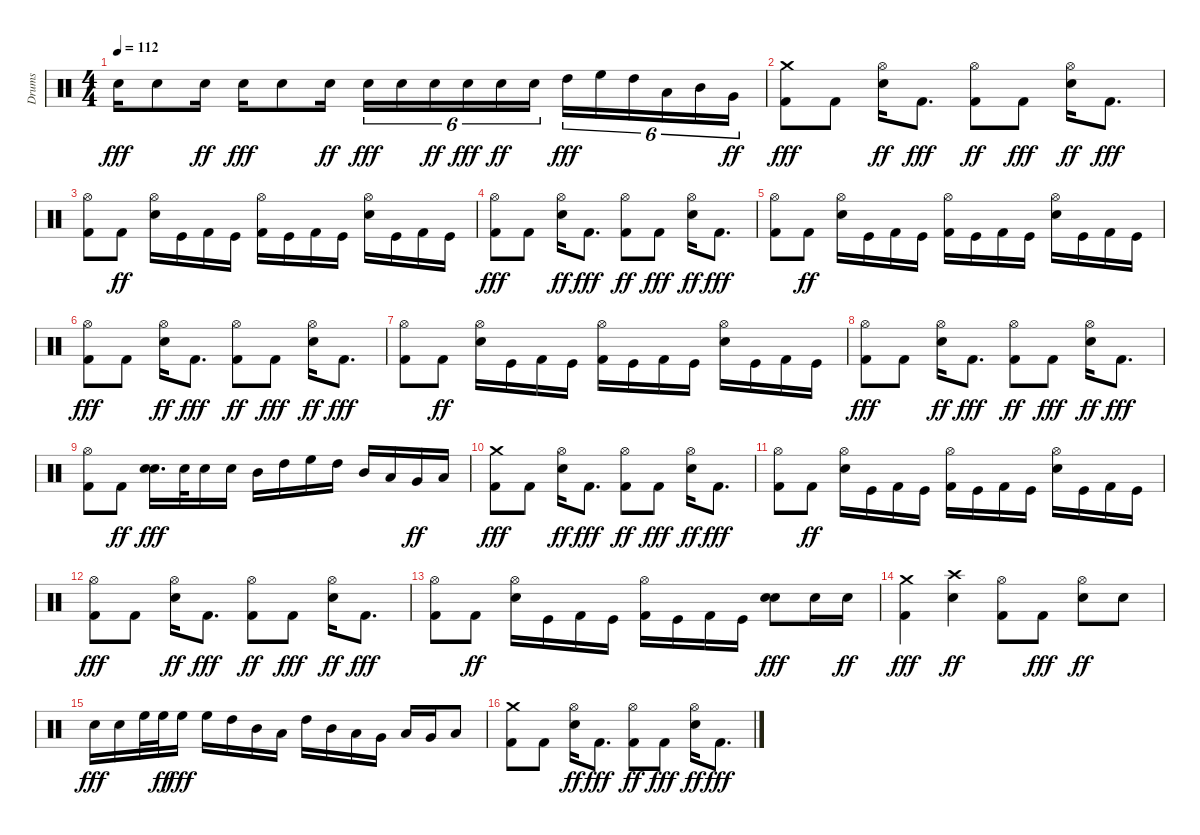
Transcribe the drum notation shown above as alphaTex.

\track ("Drums" "Drums") {instrument percussion}
\staff {score}
\articulation defaults
\ts (4 4)
\tempo 112
\clef neutral
\ks c "Snare (hit) 2".16{dy fff} "Snare (hit) 2".8 "Snare (hit) 2".16{dy ff} "Snare (hit) 2".16{dy fff} "Snare (hit) 2".8 "Snare (hit) 2".16{dy ff} "Electric Snare (hit)".16{tu (6 4) dy fff} "Snare (hit) 2".16{tu (6 4)} "Electric Snare (hit)".16{tu (6 4) dy ff} "Snare (hit) 2".16{tu (6 4) dy fff} "Electric Snare (hit)".16{tu (6 4) dy ff} "Snare (hit) 2".16{tu (6 4)} "High Tom (hit)".16{tu (6 4) dy fff} "High Floor Tom (hit)".16{tu (6 4)} "High Tom (hit)".16{tu (6 4)} "Low Tom (hit)".16{tu (6 4)} "Mid Tom (hit)".16{tu (6 4)} "Very Low Tom (hit)".16{tu (6 4) dy ff}
|
("Kick (hit) 2" "Crash medium (hit)").8{dy fff} "Kick (hit) 2".8 ("Snare (hit) 2" "Hi-Hat (open)").16{dy ff} "Kick (hit) 2".8{d dy fff} ("Kick (hit) 2" "Hi-Hat (open)").8{dy ff} "Kick (hit) 2".8{dy fff} ("Snare (hit) 2" "Hi-Hat (open)").16{dy ff} "Kick (hit) 2".8{d dy fff} |
("Kick (hit) 2" "Hi-Hat (open)").8 "Kick (hit) 2".8{dy ff} ("Snare (hit) 2" "Hi-Hat (open)").16 "Kick (hit)".16 "Kick (hit) 2".16 "Kick (hit)".16 ("Kick (hit) 2" "Hi-Hat (open)").16 "Kick (hit)".16 "Kick (hit) 2".16 "Kick (hit)".16 ("Snare (hit) 2" "Hi-Hat (open)").16 "Kick (hit)".16 "Kick (hit) 2".16 "Kick (hit)".16 |
("Kick (hit) 2" "Hi-Hat (open)").8{dy fff} "Kick (hit) 2".8 ("Snare (hit) 2" "Hi-Hat (open)").16{dy ff} "Kick (hit) 2".8{d dy fff} ("Kick (hit) 2" "Hi-Hat (open)").8{dy ff} "Kick (hit) 2".8{dy fff} ("Snare (hit) 2" "Hi-Hat (open)").16{dy ff} "Kick (hit) 2".8{d dy fff} |
("Kick (hit) 2" "Hi-Hat (open)").8 "Kick (hit) 2".8{dy ff} ("Snare (hit) 2" "Hi-Hat (open)").16 "Kick (hit)".16 "Kick (hit) 2".16 "Kick (hit)".16 ("Kick (hit) 2" "Hi-Hat (open)").16 "Kick (hit)".16 "Kick (hit) 2".16 "Kick (hit)".16 ("Snare (hit) 2" "Hi-Hat (open)").16 "Kick (hit)".16 "Kick (hit) 2".16 "Kick (hit)".16 |
("Kick (hit) 2" "Hi-Hat (open)").8{dy fff} "Kick (hit) 2".8 ("Snare (hit) 2" "Hi-Hat (open)").16{dy ff} "Kick (hit) 2".8{d dy fff} ("Kick (hit) 2" "Hi-Hat (open)").8{dy ff} "Kick (hit) 2".8{dy fff} ("Snare (hit) 2" "Hi-Hat (open)").16{dy ff} "Kick (hit) 2".8{d dy fff} |
("Kick (hit) 2" "Hi-Hat (open)").8 "Kick (hit) 2".8{dy ff} ("Snare (hit) 2" "Hi-Hat (open)").16 "Kick (hit)".16 "Kick (hit) 2".16 "Kick (hit)".16 ("Kick (hit) 2" "Hi-Hat (open)").16 "Kick (hit)".16 "Kick (hit) 2".16 "Kick (hit)".16 ("Snare (hit) 2" "Hi-Hat (open)").16 "Kick (hit)".16 "Kick (hit) 2".16 "Kick (hit)".16 |
("Kick (hit) 2" "Hi-Hat (open)").8{dy fff} "Kick (hit) 2".8 ("Snare (hit) 2" "Hi-Hat (open)").16{dy ff} "Kick (hit) 2".8{d dy fff} ("Kick (hit) 2" "Hi-Hat (open)").8{dy ff} "Kick (hit) 2".8{dy fff} ("Snare (hit) 2" "Hi-Hat (open)").16{dy ff} "Kick (hit) 2".8{d dy fff} |
("Kick (hit) 2" "Hi-Hat (open)").8 "Kick (hit) 2".8{dy ff} ("Snare (hit) 2" "Electric Snare (hit)").16{d dy fff} "Electric Snare (hit)".32 "Electric Snare (hit)".16 "Electric Snare (hit)".16 "Mid Tom (hit)".16 "High Tom (hit)".16 "High Floor Tom (hit)".16 "High Tom (hit)".16 "Mid Tom (hit)".16 "Low Tom (hit)".16 "Very Low Tom (hit)".16{dy ff} "Low Floor Tom (hit)".16 |
("Kick (hit) 2" "Crash medium (hit)").8{dy fff} "Kick (hit) 2".8 ("Snare (hit) 2" "Hi-Hat (open)").16{dy ff} "Kick (hit) 2".8{d dy fff} ("Kick (hit) 2" "Hi-Hat (open)").8{dy ff} "Kick (hit) 2".8{dy fff} ("Snare (hit) 2" "Hi-Hat (open)").16{dy ff} "Kick (hit) 2".8{d dy fff} |
("Kick (hit) 2" "Hi-Hat (open)").8 "Kick (hit) 2".8{dy ff} ("Snare (hit) 2" "Hi-Hat (open)").16 "Kick (hit)".16 "Kick (hit) 2".16 "Kick (hit)".16 ("Kick (hit) 2" "Hi-Hat (open)").16 "Kick (hit)".16 "Kick (hit) 2".16 "Kick (hit)".16 ("Snare (hit) 2" "Hi-Hat (open)").16 "Kick (hit)".16 "Kick (hit) 2".16 "Kick (hit)".16 |
("Kick (hit) 2" "Hi-Hat (open)").8{dy fff} "Kick (hit) 2".8 ("Snare (hit) 2" "Hi-Hat (open)").16{dy ff} "Kick (hit) 2".8{d dy fff} ("Kick (hit) 2" "Hi-Hat (open)").8{dy ff} "Kick (hit) 2".8{dy fff} ("Snare (hit) 2" "Hi-Hat (open)").16{dy ff} "Kick (hit) 2".8{d dy fff} |
("Kick (hit) 2" "Hi-Hat (open)").8 "Kick (hit) 2".8{dy ff} ("Snare (hit) 2" "Hi-Hat (open)").16 "Kick (hit)".16 "Kick (hit) 2".16 "Kick (hit)".16 ("Kick (hit) 2" "Hi-Hat (open)").16 "Kick (hit)".16 "Kick (hit) 2".16 "Kick (hit)".16 ("Snare (hit) 2" "Snare (hit) 2").8{dy fff} "Snare (hit) 2".16 "Snare (hit) 2".16{dy ff} |
("Kick (hit) 2" "Crash medium (hit)").4{dy fff} ("Snare (hit) 2" "Crash high (hit)").4{dy ff} ("Kick (hit) 2" "Hi-Hat (open)").8 "Kick (hit) 2".8{dy fff} ("Snare (hit) 2" "Hi-Hat (open)").8{dy ff} "Snare (hit) 2".8 |
"Electric Snare (hit)".16{dy fff} "Electric Snare (hit)".16 "High Floor Tom (hit)".32 "High Floor Tom (hit)".32{dy ff} "High Floor Tom (hit)".16{dy fff} "High Floor Tom (hit)".16 "High Tom (hit)".16 "Mid Tom (hit)".16 "Low Tom (hit)".16 "High Tom (hit)".16 "Mid Tom (hit)".16 "Low Tom (hit)".16 "Very Low Tom (hit)".16 "Low Tom (hit)".16 "Very Low Tom (hit)".16 "Low Floor Tom (hit)".8 |
("Kick (hit) 2" "Crash medium (hit)").8 "Kick (hit) 2".8 ("Snare (hit) 2" "Hi-Hat (open)").16{dy ff} "Kick (hit) 2".8{d dy fff} ("Kick (hit) 2" "Hi-Hat (open)").8{dy ff} "Kick (hit) 2".8{dy fff} ("Snare (hit) 2" "Hi-Hat (open)").16{dy ff} "Kick (hit) 2".8{d dy fff}
